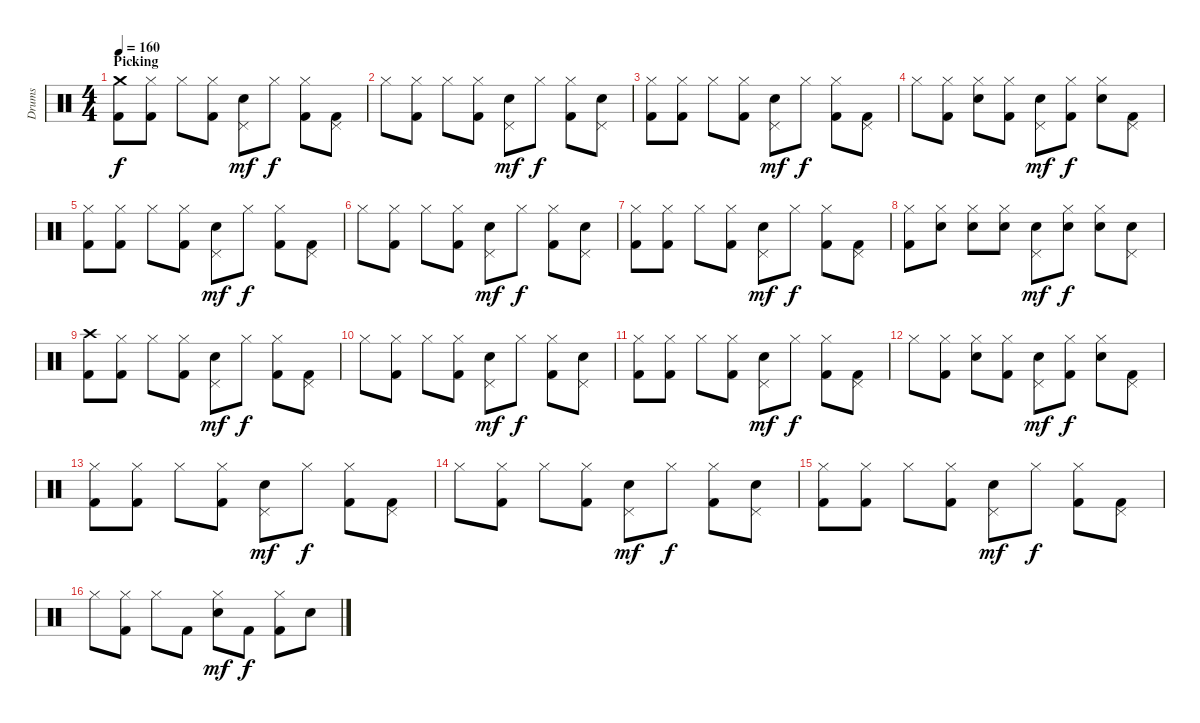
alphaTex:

\track ("Drums" "Drums") {instrument percussion}
\staff {score}
\articulation defaults
\ts (4 4)
\section ("" "Picking")
\tempo 160
\clef neutral
\ks c
("Crash medium (hit)" "Kick (hit) 2").8{dy f} ("Hi-Hat (closed)" "Kick (hit) 2").8 "Hi-Hat (closed)".8 ("Hi-Hat (closed)" "Kick (hit) 2").8 ("Pedal Hi-Hat (hit)" "Electric Snare (hit)").8{dy mf} "Hi-Hat (closed)".8{dy f} ("Hi-Hat (closed)" "Kick (hit) 2").8 ("Pedal Hi-Hat (hit)" "Kick (hit) 2").8 |
"Hi-Hat (closed)".8 ("Hi-Hat (closed)" "Kick (hit) 2").8 "Hi-Hat (closed)".8 ("Hi-Hat (closed)" "Kick (hit) 2").8 ("Pedal Hi-Hat (hit)" "Electric Snare (hit)").8{dy mf} "Hi-Hat (closed)".8{dy f} ("Hi-Hat (closed)" "Kick (hit) 2").8 ("Pedal Hi-Hat (hit)" "Electric Snare (hit)").8 |
("Hi-Hat (closed)" "Kick (hit) 2").8 ("Hi-Hat (closed)" "Kick (hit) 2").8 "Hi-Hat (closed)".8 ("Hi-Hat (closed)" "Kick (hit) 2").8 ("Pedal Hi-Hat (hit)" "Electric Snare (hit)").8{dy mf} "Hi-Hat (closed)".8{dy f} ("Hi-Hat (closed)" "Kick (hit) 2").8 ("Pedal Hi-Hat (hit)" "Kick (hit) 2").8 |
"Hi-Hat (closed)".8 ("Hi-Hat (closed)" "Kick (hit) 2").8 ("Hi-Hat (closed)" "Electric Snare (hit)").8 ("Hi-Hat (closed)" "Kick (hit) 2").8 ("Pedal Hi-Hat (hit)" "Electric Snare (hit)").8{dy mf} ("Hi-Hat (closed)" "Kick (hit) 2").8{dy f} ("Hi-Hat (closed)" "Electric Snare (hit)").8 ("Pedal Hi-Hat (hit)" "Kick (hit) 2").8 |
("Hi-Hat (closed)" "Kick (hit) 2").8 ("Hi-Hat (closed)" "Kick (hit) 2").8 "Hi-Hat (closed)".8 ("Hi-Hat (closed)" "Kick (hit) 2").8 ("Pedal Hi-Hat (hit)" "Electric Snare (hit)").8{dy mf} "Hi-Hat (closed)".8{dy f} ("Hi-Hat (closed)" "Kick (hit) 2").8 ("Pedal Hi-Hat (hit)" "Kick (hit) 2").8 |
"Hi-Hat (closed)".8 ("Hi-Hat (closed)" "Kick (hit) 2").8 "Hi-Hat (closed)".8 ("Hi-Hat (closed)" "Kick (hit) 2").8 ("Pedal Hi-Hat (hit)" "Electric Snare (hit)").8{dy mf} "Hi-Hat (closed)".8{dy f} ("Hi-Hat (closed)" "Kick (hit) 2").8 ("Pedal Hi-Hat (hit)" "Electric Snare (hit)").8 |
("Hi-Hat (closed)" "Kick (hit) 2").8 ("Hi-Hat (closed)" "Kick (hit) 2").8 "Hi-Hat (closed)".8 ("Hi-Hat (closed)" "Kick (hit) 2").8 ("Pedal Hi-Hat (hit)" "Electric Snare (hit)").8{dy mf} "Hi-Hat (closed)".8{dy f} ("Hi-Hat (closed)" "Kick (hit) 2").8 ("Pedal Hi-Hat (hit)" "Kick (hit) 2").8 |
("Hi-Hat (closed)" "Kick (hit) 2").8 ("Hi-Hat (closed)" "Electric Snare (hit)").8 ("Hi-Hat (closed)" "Electric Snare (hit)").8 ("Hi-Hat (closed)" "Electric Snare (hit)").8 ("Pedal Hi-Hat (hit)" "Electric Snare (hit)").8{dy mf} ("Hi-Hat (closed)" "Electric Snare (hit)").8{dy f} ("Hi-Hat (closed)" "Electric Snare (hit)").8 ("Pedal Hi-Hat (hit)" "Electric Snare (hit)").8 |
("Crash high (hit)" "Kick (hit) 2").8 ("Hi-Hat (closed)" "Kick (hit) 2").8 "Hi-Hat (closed)".8 ("Hi-Hat (closed)" "Kick (hit) 2").8 ("Pedal Hi-Hat (hit)" "Electric Snare (hit)").8{dy mf} "Hi-Hat (closed)".8{dy f} ("Hi-Hat (closed)" "Kick (hit) 2").8 ("Pedal Hi-Hat (hit)" "Kick (hit) 2").8 |
"Hi-Hat (closed)".8 ("Hi-Hat (closed)" "Kick (hit) 2").8 "Hi-Hat (closed)".8 ("Hi-Hat (closed)" "Kick (hit) 2").8 ("Pedal Hi-Hat (hit)" "Electric Snare (hit)").8{dy mf} "Hi-Hat (closed)".8{dy f} ("Hi-Hat (closed)" "Kick (hit) 2").8 ("Pedal Hi-Hat (hit)" "Electric Snare (hit)").8 |
("Hi-Hat (closed)" "Kick (hit) 2").8 ("Hi-Hat (closed)" "Kick (hit) 2").8 "Hi-Hat (closed)".8 ("Hi-Hat (closed)" "Kick (hit) 2").8 ("Pedal Hi-Hat (hit)" "Electric Snare (hit)").8{dy mf} "Hi-Hat (closed)".8{dy f} ("Hi-Hat (closed)" "Kick (hit) 2").8 ("Pedal Hi-Hat (hit)" "Kick (hit) 2").8 |
"Hi-Hat (closed)".8 ("Hi-Hat (closed)" "Kick (hit) 2").8 ("Hi-Hat (closed)" "Electric Snare (hit)").8 ("Hi-Hat (closed)" "Kick (hit) 2").8 ("Pedal Hi-Hat (hit)" "Electric Snare (hit)").8{dy mf} ("Hi-Hat (closed)" "Kick (hit) 2").8{dy f} ("Hi-Hat (closed)" "Electric Snare (hit)").8 ("Pedal Hi-Hat (hit)" "Kick (hit) 2").8 |
("Hi-Hat (closed)" "Kick (hit) 2").8 ("Hi-Hat (closed)" "Kick (hit) 2").8 "Hi-Hat (closed)".8 ("Hi-Hat (closed)" "Kick (hit) 2").8 ("Pedal Hi-Hat (hit)" "Electric Snare (hit)").8{dy mf} "Hi-Hat (closed)".8{dy f} ("Hi-Hat (closed)" "Kick (hit) 2").8 ("Pedal Hi-Hat (hit)" "Kick (hit) 2").8 |
"Hi-Hat (closed)".8 ("Hi-Hat (closed)" "Kick (hit) 2").8 "Hi-Hat (closed)".8 ("Hi-Hat (closed)" "Kick (hit) 2").8 ("Pedal Hi-Hat (hit)" "Electric Snare (hit)").8{dy mf} "Hi-Hat (closed)".8{dy f} ("Hi-Hat (closed)" "Kick (hit) 2").8 ("Pedal Hi-Hat (hit)" "Electric Snare (hit)").8 |
("Hi-Hat (closed)" "Kick (hit) 2").8 ("Hi-Hat (closed)" "Kick (hit) 2").8 "Hi-Hat (closed)".8 ("Hi-Hat (closed)" "Kick (hit) 2").8 ("Pedal Hi-Hat (hit)" "Electric Snare (hit)").8{dy mf} "Hi-Hat (closed)".8{dy f} ("Hi-Hat (closed)" "Kick (hit) 2").8 ("Pedal Hi-Hat (hit)" "Kick (hit) 2").8 |
"Hi-Hat (closed)".8 ("Hi-Hat (closed)" "Kick (hit) 2").8 "Hi-Hat (closed)".8 "Kick (hit) 2".8 ("Hi-Hat (closed)" "Electric Snare (hit)").8{dy mf} "Kick (hit) 2".8{dy f} ("Hi-Hat (closed)" "Kick (hit) 2").8 "Electric Snare (hit)".8
